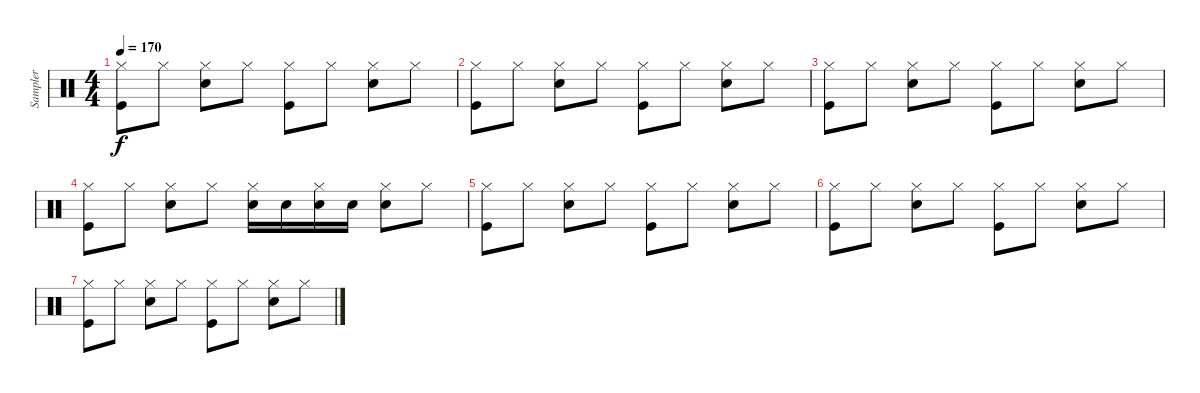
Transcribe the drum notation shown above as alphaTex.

\track ("Sampler" "Sampler") {instrument percussion}
\staff {score}
\articulation defaults
\ts (4 4)
\tempo 170
\clef neutral
\ks c
("Hi-Hat (closed)" "Kick (hit)").8{dy f} "Hi-Hat (closed)".8 ("Hi-Hat (closed)" "Electric Snare (hit)").8 "Hi-Hat (closed)".8 ("Hi-Hat (closed)" "Kick (hit)").8 "Hi-Hat (closed)".8 ("Hi-Hat (closed)" "Electric Snare (hit)").8 "Hi-Hat (closed)".8 |
("Hi-Hat (closed)" "Kick (hit)").8 "Hi-Hat (closed)".8 ("Hi-Hat (closed)" "Electric Snare (hit)").8 "Hi-Hat (closed)".8 ("Hi-Hat (closed)" "Kick (hit)").8 "Hi-Hat (closed)".8 ("Hi-Hat (closed)" "Electric Snare (hit)").8 "Hi-Hat (closed)".8 |
("Hi-Hat (closed)" "Kick (hit)").8 "Hi-Hat (closed)".8 ("Hi-Hat (closed)" "Electric Snare (hit)").8 "Hi-Hat (closed)".8 ("Hi-Hat (closed)" "Kick (hit)").8 "Hi-Hat (closed)".8 ("Hi-Hat (closed)" "Electric Snare (hit)").8 "Hi-Hat (closed)".8 |
("Hi-Hat (closed)" "Kick (hit)").8 "Hi-Hat (closed)".8 ("Hi-Hat (closed)" "Electric Snare (hit)").8 "Hi-Hat (closed)".8 ("Hi-Hat (closed)" "Electric Snare (hit)").16 "Electric Snare (hit)".16 ("Hi-Hat (closed)" "Electric Snare (hit)").16 "Electric Snare (hit)".16 ("Hi-Hat (closed)" "Electric Snare (hit)").8 "Hi-Hat (closed)".8 |
("Hi-Hat (closed)" "Kick (hit)").8 "Hi-Hat (closed)".8 ("Hi-Hat (closed)" "Electric Snare (hit)").8 "Hi-Hat (closed)".8 ("Hi-Hat (closed)" "Kick (hit)").8 "Hi-Hat (closed)".8 ("Hi-Hat (closed)" "Electric Snare (hit)").8 "Hi-Hat (closed)".8 |
("Hi-Hat (closed)" "Kick (hit)").8 "Hi-Hat (closed)".8 ("Hi-Hat (closed)" "Electric Snare (hit)").8 "Hi-Hat (closed)".8 ("Hi-Hat (closed)" "Kick (hit)").8 "Hi-Hat (closed)".8 ("Hi-Hat (closed)" "Electric Snare (hit)").8 "Hi-Hat (closed)".8 |
("Hi-Hat (closed)" "Kick (hit)").8 "Hi-Hat (closed)".8 ("Hi-Hat (closed)" "Electric Snare (hit)").8 "Hi-Hat (closed)".8 ("Hi-Hat (closed)" "Kick (hit)").8 "Hi-Hat (closed)".8 ("Hi-Hat (closed)" "Electric Snare (hit)").8 "Hi-Hat (closed)".8
